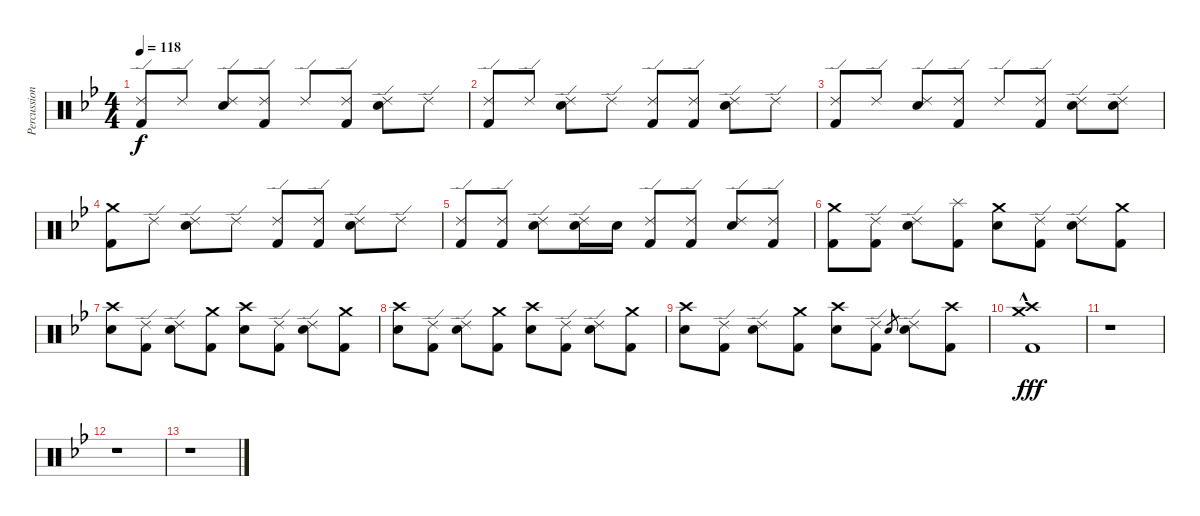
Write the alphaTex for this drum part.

\track ("Percussion" "Percussion") {instrument percussion}
\staff {score}
\articulation defaults
\ts (4 4)
\tempo 118
\clef neutral
\ks bb
("Ride (edge) 2" "Kick (hit) 2").8{dy f} "Ride (edge) 2".8 ("Ride (edge) 2" "Electric Snare (hit)").8 ("Ride (edge) 2" "Kick (hit) 2").8 "Ride (edge) 2".8 ("Ride (edge) 2" "Kick (hit) 2").8 ("Ride (edge) 2" "Electric Snare (hit)").8 "Ride (edge) 2".8 |
("Ride (edge) 2" "Kick (hit) 2").8 "Ride (edge) 2".8 ("Ride (edge) 2" "Electric Snare (hit)").8 "Ride (edge) 2".8 ("Ride (edge) 2" "Kick (hit) 2").8 ("Ride (edge) 2" "Kick (hit) 2").8 ("Ride (edge) 2" "Electric Snare (hit)").8 "Ride (edge) 2".8 |
("Ride (edge) 2" "Kick (hit) 2").8 "Ride (edge) 2".8 ("Ride (edge) 2" "Electric Snare (hit)").8 ("Ride (edge) 2" "Kick (hit) 2").8 "Ride (edge) 2".8 ("Ride (edge) 2" "Kick (hit) 2").8 ("Ride (edge) 2" "Electric Snare (hit)").8 ("Ride (edge) 2" "Electric Snare (hit)").8 |
("Crash medium (hit)" "Kick (hit) 2").8 "Ride (edge) 2".8 ("Ride (edge) 2" "Electric Snare (hit)").8 "Ride (edge) 2".8 ("Ride (edge) 2" "Kick (hit) 2").8 ("Ride (edge) 2" "Kick (hit) 2").8 ("Ride (edge) 2" "Electric Snare (hit)").8 "Ride (edge) 2".8 |
("Ride (edge) 2" "Kick (hit) 2").8 ("Ride (edge) 2" "Kick (hit) 2").8 ("Ride (edge) 2" "Electric Snare (hit)").8 ("Ride (edge) 2" "Electric Snare (hit)").16 "Electric Snare (hit)".16 ("Ride (edge) 2" "Kick (hit) 2").8 ("Ride (edge) 2" "Kick (hit) 2").8 ("Ride (edge) 2" "Electric Snare (hit)").8 ("Ride (edge) 2" "Kick (hit) 2").8 |
("Crash medium (hit)" "Kick (hit) 2").8 ("Ride (edge) 2" "Kick (hit) 2").8 ("Ride (edge) 2" "Electric Snare (hit)").8 ("Splash (hit)" "Kick (hit) 2").8 ("Crash medium (hit)" "Electric Snare (hit)").8 ("Ride (edge) 2" "Kick (hit) 2").8 ("Ride (edge) 2" "Electric Snare (hit)").8 ("Crash medium (hit)" "Kick (hit) 2").8 |
("Crash high (hit)" "Electric Snare (hit)").8 ("Ride (edge) 2" "Kick (hit) 2").8 ("Ride (edge) 2" "Electric Snare (hit)").8 ("Crash medium (hit)" "Kick (hit) 2").8 ("Crash high (hit)" "Electric Snare (hit)").8 ("Ride (edge) 2" "Kick (hit) 2").8 ("Ride (edge) 2" "Electric Snare (hit)").8 ("Crash medium (hit)" "Kick (hit) 2").8 |
("Crash high (hit)" "Electric Snare (hit)").8 ("Ride (edge) 2" "Kick (hit) 2").8 ("Ride (edge) 2" "Electric Snare (hit)").8 ("Crash medium (hit)" "Kick (hit) 2").8 ("Crash high (hit)" "Electric Snare (hit)").8 ("Ride (edge) 2" "Kick (hit) 2").8 ("Ride (edge) 2" "Electric Snare (hit)").8 ("Crash medium (hit)" "Kick (hit) 2").8 |
("Crash high (hit)" "Electric Snare (hit)").8 ("Ride (edge) 2" "Kick (hit) 2").8 ("Ride (edge) 2" "Electric Snare (hit)").8 ("Crash medium (hit)" "Kick (hit) 2").8 ("Crash high (hit)" "Electric Snare (hit)").8 ("Ride (edge) 2" "Kick (hit) 2").8 "Electric Snare (hit)".8{gr} ("Ride (edge) 2" "Electric Snare (hit)").8 ("Crash high (hit)" "Kick (hit) 2").8 |
("Crash medium (hit)"{hac} "Crash high (hit)"{hac} "Kick (hit) 2").1{dy fff} |
r.1 |
r.1 |
r.1
